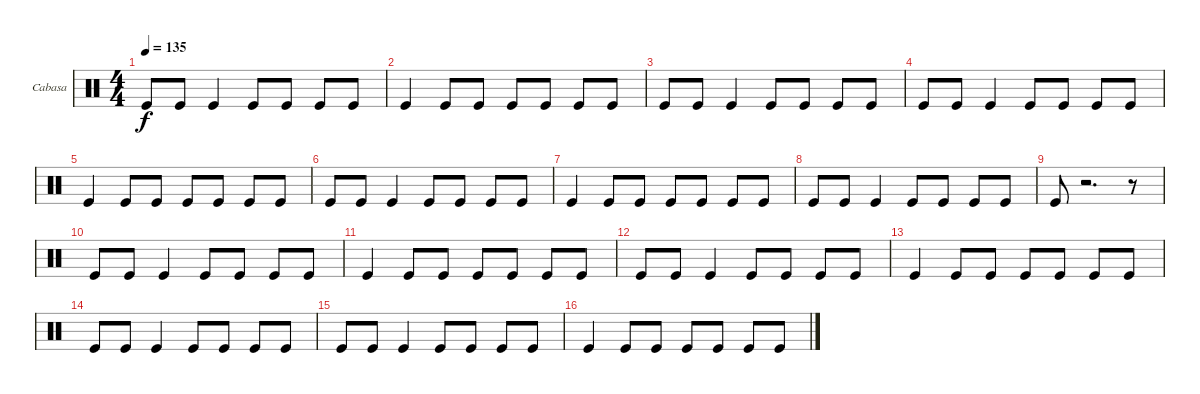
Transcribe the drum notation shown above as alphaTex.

\bracketExtendMode groupsimilarinstruments
\firstSystemTrackNameOrientation horizontal
\otherSystemsTrackNameOrientation horizontal
\track ("Cabasa" "Cabasa") {instrument percussion}
\staff {score}
\articulation defaults
\ts (4 4)
\tempo 135
\clef neutral
\ks c "Kick (hit)".8{dy f} "Kick (hit)".8 "Kick (hit)".4 "Kick (hit)".8 "Kick (hit)".8 "Kick (hit)".8 "Kick (hit)".8
|
"Kick (hit)".4 "Kick (hit)".8 "Kick (hit)".8 "Kick (hit)".8 "Kick (hit)".8 "Kick (hit)".8 "Kick (hit)".8 |
"Kick (hit)".8 "Kick (hit)".8 "Kick (hit)".4 "Kick (hit)".8 "Kick (hit)".8 "Kick (hit)".8 "Kick (hit)".8 |
"Kick (hit)".8 "Kick (hit)".8 "Kick (hit)".4 "Kick (hit)".8 "Kick (hit)".8 "Kick (hit)".8 "Kick (hit)".8 |
"Kick (hit)".4 "Kick (hit)".8 "Kick (hit)".8 "Kick (hit)".8 "Kick (hit)".8 "Kick (hit)".8 "Kick (hit)".8 |
"Kick (hit)".8 "Kick (hit)".8 "Kick (hit)".4 "Kick (hit)".8 "Kick (hit)".8 "Kick (hit)".8 "Kick (hit)".8 |
"Kick (hit)".4 "Kick (hit)".8 "Kick (hit)".8 "Kick (hit)".8 "Kick (hit)".8 "Kick (hit)".8 "Kick (hit)".8 |
"Kick (hit)".8 "Kick (hit)".8 "Kick (hit)".4 "Kick (hit)".8 "Kick (hit)".8 "Kick (hit)".8 "Kick (hit)".8 |
"Kick (hit)".8 r.2{d} r.8 |
"Kick (hit)".8 "Kick (hit)".8 "Kick (hit)".4 "Kick (hit)".8 "Kick (hit)".8 "Kick (hit)".8 "Kick (hit)".8 |
"Kick (hit)".4 "Kick (hit)".8 "Kick (hit)".8 "Kick (hit)".8 "Kick (hit)".8 "Kick (hit)".8 "Kick (hit)".8 |
"Kick (hit)".8 "Kick (hit)".8 "Kick (hit)".4 "Kick (hit)".8 "Kick (hit)".8 "Kick (hit)".8 "Kick (hit)".8 |
"Kick (hit)".4 "Kick (hit)".8 "Kick (hit)".8 "Kick (hit)".8 "Kick (hit)".8 "Kick (hit)".8 "Kick (hit)".8 |
"Kick (hit)".8 "Kick (hit)".8 "Kick (hit)".4 "Kick (hit)".8 "Kick (hit)".8 "Kick (hit)".8 "Kick (hit)".8 |
"Kick (hit)".8 "Kick (hit)".8 "Kick (hit)".4 "Kick (hit)".8 "Kick (hit)".8 "Kick (hit)".8 "Kick (hit)".8 |
"Kick (hit)".4 "Kick (hit)".8 "Kick (hit)".8 "Kick (hit)".8 "Kick (hit)".8 "Kick (hit)".8 "Kick (hit)".8
